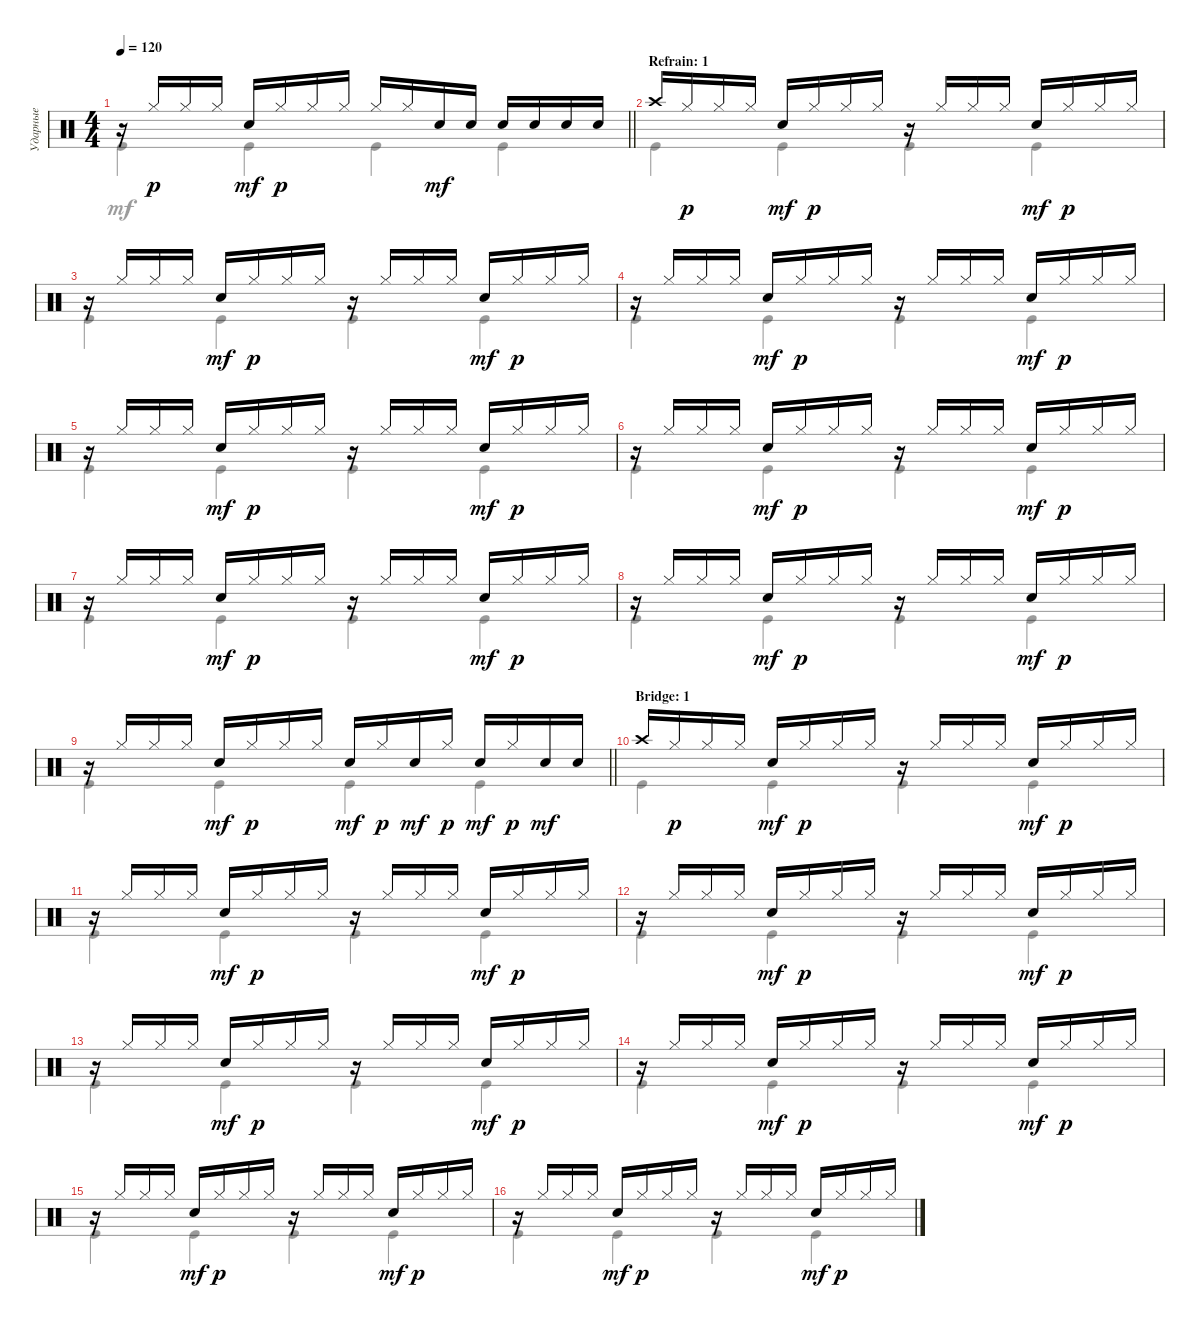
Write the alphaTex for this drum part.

\track ("Ударные" "Ударные") {instrument percussion}
\staff {score}
\articulation defaults
\voice
\ts (4 4)
\tempo 120
\clef neutral
\barLineRight lightlight
\ks c
r.16{dy p} "Hi-Hat (closed)".16 "Hi-Hat (closed)".16 "Hi-Hat (closed)".16 "Snare (hit) 2".16{dy mf} "Hi-Hat (closed)".16{dy p} "Hi-Hat (closed)".16 "Hi-Hat (closed)".16 "Hi-Hat (closed)".16 "Hi-Hat (closed)".16 "Snare (hit) 2".16{dy mf} "Snare (hit) 2".16 "Snare (hit) 2".16 "Snare (hit) 2".16 "Snare (hit) 2".16 "Snare (hit) 2".16 |
\section ("" "Refrain: 1")
"Crash high (hit)".16 "Hi-Hat (closed)".16{dy p} "Hi-Hat (closed)".16 "Hi-Hat (closed)".16 "Snare (hit) 2".16{dy mf} "Hi-Hat (closed)".16{dy p} "Hi-Hat (closed)".16 "Hi-Hat (closed)".16 r.16 "Hi-Hat (closed)".16 "Hi-Hat (closed)".16 "Hi-Hat (closed)".16 "Snare (hit) 2".16{dy mf} "Hi-Hat (closed)".16{dy p} "Hi-Hat (closed)".16 "Hi-Hat (closed)".16 |
r.16 "Hi-Hat (closed)".16 "Hi-Hat (closed)".16 "Hi-Hat (closed)".16 "Snare (hit) 2".16{dy mf} "Hi-Hat (closed)".16{dy p} "Hi-Hat (closed)".16 "Hi-Hat (closed)".16 r.16 "Hi-Hat (closed)".16 "Hi-Hat (closed)".16 "Hi-Hat (closed)".16 "Snare (hit) 2".16{dy mf} "Hi-Hat (closed)".16{dy p} "Hi-Hat (closed)".16 "Hi-Hat (closed)".16 |
r.16 "Hi-Hat (closed)".16 "Hi-Hat (closed)".16 "Hi-Hat (closed)".16 "Snare (hit) 2".16{dy mf} "Hi-Hat (closed)".16{dy p} "Hi-Hat (closed)".16 "Hi-Hat (closed)".16 r.16 "Hi-Hat (closed)".16 "Hi-Hat (closed)".16 "Hi-Hat (closed)".16 "Snare (hit) 2".16{dy mf} "Hi-Hat (closed)".16{dy p} "Hi-Hat (closed)".16 "Hi-Hat (closed)".16 |
r.16 "Hi-Hat (closed)".16 "Hi-Hat (closed)".16 "Hi-Hat (closed)".16 "Snare (hit) 2".16{dy mf} "Hi-Hat (closed)".16{dy p} "Hi-Hat (closed)".16 "Hi-Hat (closed)".16 r.16 "Hi-Hat (closed)".16 "Hi-Hat (closed)".16 "Hi-Hat (closed)".16 "Snare (hit) 2".16{dy mf} "Hi-Hat (closed)".16{dy p} "Hi-Hat (closed)".16 "Hi-Hat (closed)".16 |
r.16 "Hi-Hat (closed)".16 "Hi-Hat (closed)".16 "Hi-Hat (closed)".16 "Snare (hit) 2".16{dy mf} "Hi-Hat (closed)".16{dy p} "Hi-Hat (closed)".16 "Hi-Hat (closed)".16 r.16 "Hi-Hat (closed)".16 "Hi-Hat (closed)".16 "Hi-Hat (closed)".16 "Snare (hit) 2".16{dy mf} "Hi-Hat (closed)".16{dy p} "Hi-Hat (closed)".16 "Hi-Hat (closed)".16 |
r.16 "Hi-Hat (closed)".16 "Hi-Hat (closed)".16 "Hi-Hat (closed)".16 "Snare (hit) 2".16{dy mf} "Hi-Hat (closed)".16{dy p} "Hi-Hat (closed)".16 "Hi-Hat (closed)".16 r.16 "Hi-Hat (closed)".16 "Hi-Hat (closed)".16 "Hi-Hat (closed)".16 "Snare (hit) 2".16{dy mf} "Hi-Hat (closed)".16{dy p} "Hi-Hat (closed)".16 "Hi-Hat (closed)".16 |
r.16 "Hi-Hat (closed)".16 "Hi-Hat (closed)".16 "Hi-Hat (closed)".16 "Snare (hit) 2".16{dy mf} "Hi-Hat (closed)".16{dy p} "Hi-Hat (closed)".16 "Hi-Hat (closed)".16 r.16 "Hi-Hat (closed)".16 "Hi-Hat (closed)".16 "Hi-Hat (closed)".16 "Snare (hit) 2".16{dy mf} "Hi-Hat (closed)".16{dy p} "Hi-Hat (closed)".16 "Hi-Hat (closed)".16 |
\barLineRight lightlight
r.16 "Hi-Hat (closed)".16 "Hi-Hat (closed)".16 "Hi-Hat (closed)".16 "Snare (hit) 2".16{dy mf} "Hi-Hat (closed)".16{dy p} "Hi-Hat (closed)".16 "Hi-Hat (closed)".16 "Snare (hit) 2".16{dy mf} "Hi-Hat (closed)".16{dy p} "Snare (hit) 2".16{dy mf} "Hi-Hat (closed)".16{dy p} "Snare (hit) 2".16{dy mf} "Hi-Hat (closed)".16{dy p} "Snare (hit) 2".16{dy mf} "Snare (hit) 2".16 |
\section ("" "Bridge: 1")
"Crash high (hit)".16 "Hi-Hat (closed)".16{dy p} "Hi-Hat (closed)".16 "Hi-Hat (closed)".16 "Snare (hit) 2".16{dy mf} "Hi-Hat (closed)".16{dy p} "Hi-Hat (closed)".16 "Hi-Hat (closed)".16 r.16 "Hi-Hat (closed)".16 "Hi-Hat (closed)".16 "Hi-Hat (closed)".16 "Snare (hit) 2".16{dy mf} "Hi-Hat (closed)".16{dy p} "Hi-Hat (closed)".16 "Hi-Hat (closed)".16 |
r.16 "Hi-Hat (closed)".16 "Hi-Hat (closed)".16 "Hi-Hat (closed)".16 "Snare (hit) 2".16{dy mf} "Hi-Hat (closed)".16{dy p} "Hi-Hat (closed)".16 "Hi-Hat (closed)".16 r.16 "Hi-Hat (closed)".16 "Hi-Hat (closed)".16 "Hi-Hat (closed)".16 "Snare (hit) 2".16{dy mf} "Hi-Hat (closed)".16{dy p} "Hi-Hat (closed)".16 "Hi-Hat (closed)".16 |
r.16 "Hi-Hat (closed)".16 "Hi-Hat (closed)".16 "Hi-Hat (closed)".16 "Snare (hit) 2".16{dy mf} "Hi-Hat (closed)".16{dy p} "Hi-Hat (closed)".16 "Hi-Hat (closed)".16 r.16 "Hi-Hat (closed)".16 "Hi-Hat (closed)".16 "Hi-Hat (closed)".16 "Snare (hit) 2".16{dy mf} "Hi-Hat (closed)".16{dy p} "Hi-Hat (closed)".16 "Hi-Hat (closed)".16 |
r.16 "Hi-Hat (closed)".16 "Hi-Hat (closed)".16 "Hi-Hat (closed)".16 "Snare (hit) 2".16{dy mf} "Hi-Hat (closed)".16{dy p} "Hi-Hat (closed)".16 "Hi-Hat (closed)".16 r.16 "Hi-Hat (closed)".16 "Hi-Hat (closed)".16 "Hi-Hat (closed)".16 "Snare (hit) 2".16{dy mf} "Hi-Hat (closed)".16{dy p} "Hi-Hat (closed)".16 "Hi-Hat (closed)".16 |
r.16 "Hi-Hat (closed)".16 "Hi-Hat (closed)".16 "Hi-Hat (closed)".16 "Snare (hit) 2".16{dy mf} "Hi-Hat (closed)".16{dy p} "Hi-Hat (closed)".16 "Hi-Hat (closed)".16 r.16 "Hi-Hat (closed)".16 "Hi-Hat (closed)".16 "Hi-Hat (closed)".16 "Snare (hit) 2".16{dy mf} "Hi-Hat (closed)".16{dy p} "Hi-Hat (closed)".16 "Hi-Hat (closed)".16 |
r.16 "Hi-Hat (closed)".16 "Hi-Hat (closed)".16 "Hi-Hat (closed)".16 "Snare (hit) 2".16{dy mf} "Hi-Hat (closed)".16{dy p} "Hi-Hat (closed)".16 "Hi-Hat (closed)".16 r.16 "Hi-Hat (closed)".16 "Hi-Hat (closed)".16 "Hi-Hat (closed)".16 "Snare (hit) 2".16{dy mf} "Hi-Hat (closed)".16{dy p} "Hi-Hat (closed)".16 "Hi-Hat (closed)".16 |
r.16 "Hi-Hat (closed)".16 "Hi-Hat (closed)".16 "Hi-Hat (closed)".16 "Snare (hit) 2".16{dy mf} "Hi-Hat (closed)".16{dy p} "Hi-Hat (closed)".16 "Hi-Hat (closed)".16 r.16 "Hi-Hat (closed)".16 "Hi-Hat (closed)".16 "Hi-Hat (closed)".16 "Snare (hit) 2".16{dy mf} "Hi-Hat (closed)".16{dy p} "Hi-Hat (closed)".16 "Hi-Hat (closed)".16
\voice
\clef neutral
\ottava regular
\simile none
\barLineRight lightlight
\ks c "Kick (hit)".4{dy mf} "Kick (hit)".4 "Kick (hit)".4 "Kick (hit)".4
|
"Kick (hit)".4 "Kick (hit)".4 "Kick (hit)".4 "Kick (hit)".4 |
"Kick (hit)".4 "Kick (hit)".4 "Kick (hit)".4 "Kick (hit)".4 |
"Kick (hit)".4 "Kick (hit)".4 "Kick (hit)".4 "Kick (hit)".4 |
"Kick (hit)".4 "Kick (hit)".4 "Kick (hit)".4 "Kick (hit)".4 |
"Kick (hit)".4 "Kick (hit)".4 "Kick (hit)".4 "Kick (hit)".4 |
"Kick (hit)".4 "Kick (hit)".4 "Kick (hit)".4 "Kick (hit)".4 |
"Kick (hit)".4 "Kick (hit)".4 "Kick (hit)".4 "Kick (hit)".4 |
\barLineRight lightlight "Kick (hit)".4 "Kick (hit)".4 "Kick (hit)".4 "Kick (hit)".4
|
"Kick (hit)".4 "Kick (hit)".4 "Kick (hit)".4 "Kick (hit)".4 |
"Kick (hit)".4 "Kick (hit)".4 "Kick (hit)".4 "Kick (hit)".4 |
"Kick (hit)".4 "Kick (hit)".4 "Kick (hit)".4 "Kick (hit)".4 |
"Kick (hit)".4 "Kick (hit)".4 "Kick (hit)".4 "Kick (hit)".4 |
"Kick (hit)".4 "Kick (hit)".4 "Kick (hit)".4 "Kick (hit)".4 |
"Kick (hit)".4 "Kick (hit)".4 "Kick (hit)".4 "Kick (hit)".4 |
"Kick (hit)".4 "Kick (hit)".4 "Kick (hit)".4 "Kick (hit)".4
